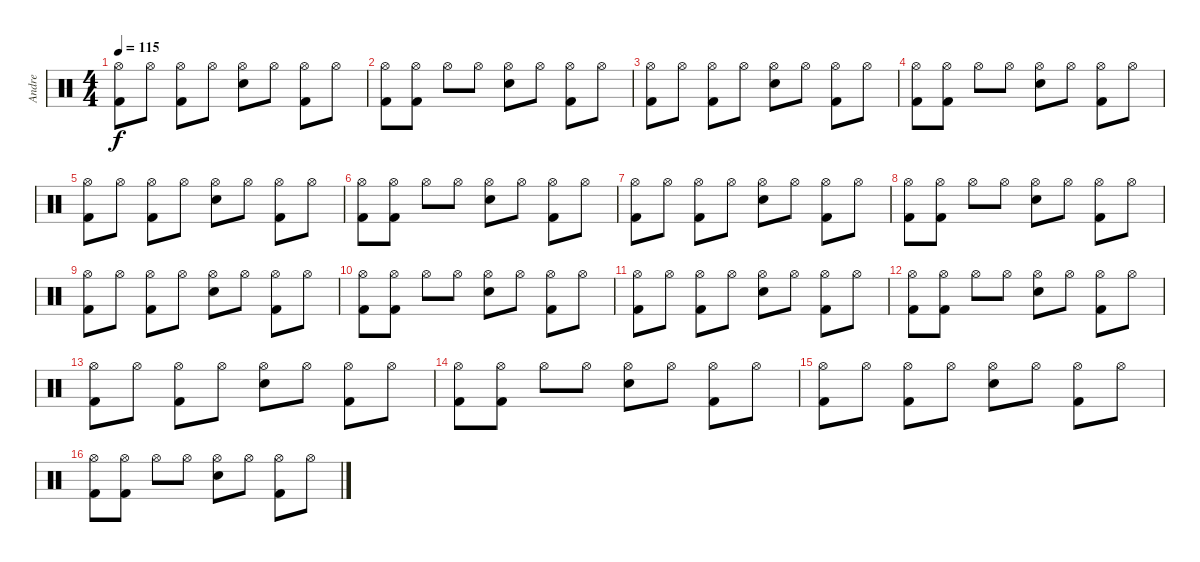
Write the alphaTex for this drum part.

\track ("Andre" "Andre") {instrument percussion}
\staff {score}
\articulation defaults
\ts (4 4)
\tempo 115
\clef neutral
\ks c
("Kick (hit) 2" "Hi-Hat (open)").8{dy f} "Hi-Hat (open)".8 ("Kick (hit) 2" "Hi-Hat (open)").8 "Hi-Hat (open)".8 ("Electric Snare (hit)" "Hi-Hat (open)").8 "Hi-Hat (open)".8 ("Kick (hit) 2" "Hi-Hat (open)").8 "Hi-Hat (open)".8 |
("Kick (hit) 2" "Hi-Hat (open)").8 ("Kick (hit) 2" "Hi-Hat (open)").8 "Hi-Hat (open)".8 "Hi-Hat (open)".8 ("Electric Snare (hit)" "Hi-Hat (open)").8 "Hi-Hat (open)".8 ("Kick (hit) 2" "Hi-Hat (open)").8 "Hi-Hat (open)".8 |
("Kick (hit) 2" "Hi-Hat (open)").8 "Hi-Hat (open)".8 ("Kick (hit) 2" "Hi-Hat (open)").8 "Hi-Hat (open)".8 ("Electric Snare (hit)" "Hi-Hat (open)").8 "Hi-Hat (open)".8 ("Kick (hit) 2" "Hi-Hat (open)").8 "Hi-Hat (open)".8 |
("Kick (hit) 2" "Hi-Hat (open)").8 ("Kick (hit) 2" "Hi-Hat (open)").8 "Hi-Hat (open)".8 "Hi-Hat (open)".8 ("Electric Snare (hit)" "Hi-Hat (open)").8 "Hi-Hat (open)".8 ("Kick (hit) 2" "Hi-Hat (open)").8 "Hi-Hat (open)".8 |
("Kick (hit) 2" "Hi-Hat (open)").8 "Hi-Hat (open)".8 ("Kick (hit) 2" "Hi-Hat (open)").8 "Hi-Hat (open)".8 ("Electric Snare (hit)" "Hi-Hat (open)").8 "Hi-Hat (open)".8 ("Kick (hit) 2" "Hi-Hat (open)").8 "Hi-Hat (open)".8 |
("Kick (hit) 2" "Hi-Hat (open)").8 ("Kick (hit) 2" "Hi-Hat (open)").8 "Hi-Hat (open)".8 "Hi-Hat (open)".8 ("Electric Snare (hit)" "Hi-Hat (open)").8 "Hi-Hat (open)".8 ("Kick (hit) 2" "Hi-Hat (open)").8 "Hi-Hat (open)".8 |
("Kick (hit) 2" "Hi-Hat (open)").8 "Hi-Hat (open)".8 ("Kick (hit) 2" "Hi-Hat (open)").8 "Hi-Hat (open)".8 ("Electric Snare (hit)" "Hi-Hat (open)").8 "Hi-Hat (open)".8 ("Kick (hit) 2" "Hi-Hat (open)").8 "Hi-Hat (open)".8 |
("Kick (hit) 2" "Hi-Hat (open)").8 ("Kick (hit) 2" "Hi-Hat (open)").8 "Hi-Hat (open)".8 "Hi-Hat (open)".8 ("Electric Snare (hit)" "Hi-Hat (open)").8 "Hi-Hat (open)".8 ("Kick (hit) 2" "Hi-Hat (open)").8 "Hi-Hat (open)".8 |
("Kick (hit) 2" "Hi-Hat (open)").8 "Hi-Hat (open)".8 ("Kick (hit) 2" "Hi-Hat (open)").8 "Hi-Hat (open)".8 ("Electric Snare (hit)" "Hi-Hat (open)").8 "Hi-Hat (open)".8 ("Kick (hit) 2" "Hi-Hat (open)").8 "Hi-Hat (open)".8 |
("Kick (hit) 2" "Hi-Hat (open)").8 ("Kick (hit) 2" "Hi-Hat (open)").8 "Hi-Hat (open)".8 "Hi-Hat (open)".8 ("Electric Snare (hit)" "Hi-Hat (open)").8 "Hi-Hat (open)".8 ("Kick (hit) 2" "Hi-Hat (open)").8 "Hi-Hat (open)".8 |
("Kick (hit) 2" "Hi-Hat (open)").8 "Hi-Hat (open)".8 ("Kick (hit) 2" "Hi-Hat (open)").8 "Hi-Hat (open)".8 ("Electric Snare (hit)" "Hi-Hat (open)").8 "Hi-Hat (open)".8 ("Kick (hit) 2" "Hi-Hat (open)").8 "Hi-Hat (open)".8 |
("Kick (hit) 2" "Hi-Hat (open)").8 ("Kick (hit) 2" "Hi-Hat (open)").8 "Hi-Hat (open)".8 "Hi-Hat (open)".8 ("Electric Snare (hit)" "Hi-Hat (open)").8 "Hi-Hat (open)".8 ("Kick (hit) 2" "Hi-Hat (open)").8 "Hi-Hat (open)".8 |
("Kick (hit) 2" "Hi-Hat (open)").8 "Hi-Hat (open)".8 ("Kick (hit) 2" "Hi-Hat (open)").8 "Hi-Hat (open)".8 ("Electric Snare (hit)" "Hi-Hat (open)").8 "Hi-Hat (open)".8 ("Kick (hit) 2" "Hi-Hat (open)").8 "Hi-Hat (open)".8 |
("Kick (hit) 2" "Hi-Hat (open)").8 ("Kick (hit) 2" "Hi-Hat (open)").8 "Hi-Hat (open)".8 "Hi-Hat (open)".8 ("Electric Snare (hit)" "Hi-Hat (open)").8 "Hi-Hat (open)".8 ("Kick (hit) 2" "Hi-Hat (open)").8 "Hi-Hat (open)".8 |
("Kick (hit) 2" "Hi-Hat (open)").8 "Hi-Hat (open)".8 ("Kick (hit) 2" "Hi-Hat (open)").8 "Hi-Hat (open)".8 ("Electric Snare (hit)" "Hi-Hat (open)").8 "Hi-Hat (open)".8 ("Kick (hit) 2" "Hi-Hat (open)").8 "Hi-Hat (open)".8 |
("Kick (hit) 2" "Hi-Hat (open)").8 ("Kick (hit) 2" "Hi-Hat (open)").8 "Hi-Hat (open)".8 "Hi-Hat (open)".8 ("Electric Snare (hit)" "Hi-Hat (open)").8 "Hi-Hat (open)".8 ("Kick (hit) 2" "Hi-Hat (open)").8 "Hi-Hat (open)".8
